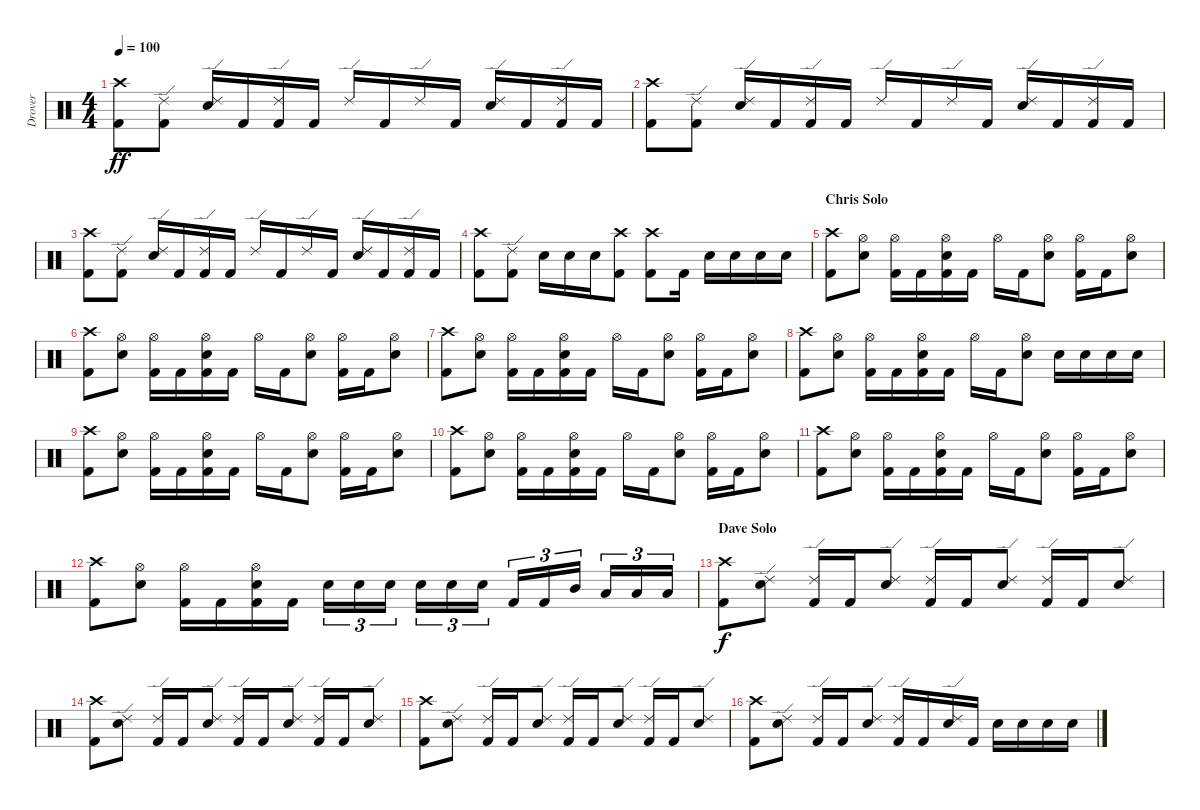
\track ("Drover" "Drover") {instrument percussion}
\staff {score}
\articulation defaults
\ts (4 4)
\tempo 100
\clef neutral
\ks c
("Crash high (hit)" "Kick (hit) 2").8{dy ff} ("Ride (edge) 2" "Kick (hit) 2").8 ("Ride (edge) 2" "Electric Snare (hit)").16 "Kick (hit) 2".16 ("Ride (edge) 2" "Kick (hit) 2").16 "Kick (hit) 2".16 "Ride (edge) 2".16 "Kick (hit) 2".16 "Ride (edge) 2".16 "Kick (hit) 2".16 ("Ride (edge) 2" "Electric Snare (hit)").16 "Kick (hit) 2".16 ("Ride (edge) 2" "Kick (hit) 2").16 "Kick (hit) 2".16 |
("Crash high (hit)" "Kick (hit) 2").8 ("Ride (edge) 2" "Kick (hit) 2").8 ("Ride (edge) 2" "Electric Snare (hit)").16 "Kick (hit) 2".16 ("Ride (edge) 2" "Kick (hit) 2").16 "Kick (hit) 2".16 "Ride (edge) 2".16 "Kick (hit) 2".16 "Ride (edge) 2".16 "Kick (hit) 2".16 ("Ride (edge) 2" "Electric Snare (hit)").16 "Kick (hit) 2".16 ("Ride (edge) 2" "Kick (hit) 2").16 "Kick (hit) 2".16 |
("Crash high (hit)" "Kick (hit) 2").8 ("Ride (edge) 2" "Kick (hit) 2").8 ("Ride (edge) 2" "Electric Snare (hit)").16 "Kick (hit) 2".16 ("Ride (edge) 2" "Kick (hit) 2").16 "Kick (hit) 2".16 "Ride (edge) 2".16 "Kick (hit) 2".16 "Ride (edge) 2".16 "Kick (hit) 2".16 ("Ride (edge) 2" "Electric Snare (hit)").16 "Kick (hit) 2".16 ("Ride (edge) 2" "Kick (hit) 2").16 "Kick (hit) 2".16 |
("Crash high (hit)" "Kick (hit) 2").8 ("Ride (edge) 2" "Kick (hit) 2").8 "Electric Snare (hit)".16 "Electric Snare (hit)".16 "Electric Snare (hit)".16 ("Crash high (hit)" "Kick (hit) 2").8 ("Crash high (hit)" "Kick (hit) 2").8 "Kick (hit) 2".16 "Electric Snare (hit)".16 "Electric Snare (hit)".16 "Electric Snare (hit)".16 "Electric Snare (hit)".16 |
\section ("" "Chris Solo")
("Crash high (hit)" "Kick (hit) 2").8 ("Hi-Hat (open)" "Electric Snare (hit)").8 ("Hi-Hat (open)" "Kick (hit) 2").16 "Kick (hit) 2".16 ("Hi-Hat (open)" "Electric Snare (hit)" "Kick (hit) 2").16 "Kick (hit) 2".16 "Hi-Hat (open)".16 "Kick (hit) 2".16 ("Hi-Hat (open)" "Electric Snare (hit)").8 ("Hi-Hat (open)" "Kick (hit) 2").16 "Kick (hit) 2".16 ("Hi-Hat (open)" "Electric Snare (hit)").8 |
("Crash high (hit)" "Kick (hit) 2").8 ("Hi-Hat (open)" "Electric Snare (hit)").8 ("Hi-Hat (open)" "Kick (hit) 2").16 "Kick (hit) 2".16 ("Hi-Hat (open)" "Electric Snare (hit)" "Kick (hit) 2").16 "Kick (hit) 2".16 "Hi-Hat (open)".16 "Kick (hit) 2".16 ("Hi-Hat (open)" "Electric Snare (hit)").8 ("Hi-Hat (open)" "Kick (hit) 2").16 "Kick (hit) 2".16 ("Hi-Hat (open)" "Electric Snare (hit)").8 |
("Crash high (hit)" "Kick (hit) 2").8 ("Hi-Hat (open)" "Electric Snare (hit)").8 ("Hi-Hat (open)" "Kick (hit) 2").16 "Kick (hit) 2".16 ("Hi-Hat (open)" "Electric Snare (hit)" "Kick (hit) 2").16 "Kick (hit) 2".16 "Hi-Hat (open)".16 "Kick (hit) 2".16 ("Hi-Hat (open)" "Electric Snare (hit)").8 ("Hi-Hat (open)" "Kick (hit) 2").16 "Kick (hit) 2".16 ("Hi-Hat (open)" "Electric Snare (hit)").8 |
("Crash high (hit)" "Kick (hit) 2").8 ("Hi-Hat (open)" "Electric Snare (hit)").8 ("Hi-Hat (open)" "Kick (hit) 2").16 "Kick (hit) 2".16 ("Hi-Hat (open)" "Electric Snare (hit)" "Kick (hit) 2").16 "Kick (hit) 2".16 "Hi-Hat (open)".16 "Kick (hit) 2".16 ("Hi-Hat (open)" "Electric Snare (hit)").8 "Electric Snare (hit)".16 "Electric Snare (hit)".16 "Electric Snare (hit)".16 "Electric Snare (hit)".16 |
("Crash high (hit)" "Kick (hit) 2").8 ("Hi-Hat (open)" "Electric Snare (hit)").8 ("Hi-Hat (open)" "Kick (hit) 2").16 "Kick (hit) 2".16 ("Hi-Hat (open)" "Electric Snare (hit)" "Kick (hit) 2").16 "Kick (hit) 2".16 "Hi-Hat (open)".16 "Kick (hit) 2".16 ("Hi-Hat (open)" "Electric Snare (hit)").8 ("Hi-Hat (open)" "Kick (hit) 2").16 "Kick (hit) 2".16 ("Hi-Hat (open)" "Electric Snare (hit)").8 |
("Crash high (hit)" "Kick (hit) 2").8 ("Hi-Hat (open)" "Electric Snare (hit)").8 ("Hi-Hat (open)" "Kick (hit) 2").16 "Kick (hit) 2".16 ("Hi-Hat (open)" "Electric Snare (hit)" "Kick (hit) 2").16 "Kick (hit) 2".16 "Hi-Hat (open)".16 "Kick (hit) 2".16 ("Hi-Hat (open)" "Electric Snare (hit)").8 ("Hi-Hat (open)" "Kick (hit) 2").16 "Kick (hit) 2".16 ("Hi-Hat (open)" "Electric Snare (hit)").8 |
("Crash high (hit)" "Kick (hit) 2").8 ("Hi-Hat (open)" "Electric Snare (hit)").8 ("Hi-Hat (open)" "Kick (hit) 2").16 "Kick (hit) 2".16 ("Hi-Hat (open)" "Electric Snare (hit)" "Kick (hit) 2").16 "Kick (hit) 2".16 "Hi-Hat (open)".16 "Kick (hit) 2".16 ("Hi-Hat (open)" "Electric Snare (hit)").8 ("Hi-Hat (open)" "Kick (hit) 2").16 "Kick (hit) 2".16 ("Hi-Hat (open)" "Electric Snare (hit)").8 |
("Crash high (hit)" "Kick (hit) 2").8 ("Hi-Hat (open)" "Electric Snare (hit)").8 ("Hi-Hat (open)" "Kick (hit) 2").16 "Kick (hit) 2".16 ("Hi-Hat (open)" "Electric Snare (hit)" "Kick (hit) 2").16 "Kick (hit) 2".16 "Electric Snare (hit)".16{tu (3 2)} "Electric Snare (hit)".16{tu (3 2)} "Electric Snare (hit)".16{tu (3 2)} "Electric Snare (hit)".16{tu (3 2)} "Electric Snare (hit)".16{tu (3 2)} "Electric Snare (hit)".16{tu (3 2)} "Kick (hit) 2".16{tu (3 2)} "Kick (hit) 2".16{tu (3 2)} "Mid Tom (hit)".16{tu (3 2)} "Low Tom (hit)".16{tu (3 2)} "Low Tom (hit)".16{tu (3 2)} "Low Tom (hit)".16{tu (3 2)} |
\section ("" "Dave Solo")
("Crash high (hit)" "Kick (hit) 2").8{dy f} ("Ride (edge) 2" "Electric Snare (hit)").8 ("Ride (edge) 2" "Kick (hit) 2").16 "Kick (hit) 2".16 ("Ride (edge) 2" "Electric Snare (hit)").8 ("Ride (edge) 2" "Kick (hit) 2").16 "Kick (hit) 2".16 ("Ride (edge) 2" "Electric Snare (hit)").8 ("Ride (edge) 2" "Kick (hit) 2").16 "Kick (hit) 2".16 ("Ride (edge) 2" "Electric Snare (hit)").8 |
("Crash high (hit)" "Kick (hit) 2").8 ("Ride (edge) 2" "Electric Snare (hit)").8 ("Ride (edge) 2" "Kick (hit) 2").16 "Kick (hit) 2".16 ("Ride (edge) 2" "Electric Snare (hit)").8 ("Ride (edge) 2" "Kick (hit) 2").16 "Kick (hit) 2".16 ("Ride (edge) 2" "Electric Snare (hit)").8 ("Ride (edge) 2" "Kick (hit) 2").16 "Kick (hit) 2".16 ("Ride (edge) 2" "Electric Snare (hit)").8 |
("Crash high (hit)" "Kick (hit) 2").8 ("Ride (edge) 2" "Electric Snare (hit)").8 ("Ride (edge) 2" "Kick (hit) 2").16 "Kick (hit) 2".16 ("Ride (edge) 2" "Electric Snare (hit)").8 ("Ride (edge) 2" "Kick (hit) 2").16 "Kick (hit) 2".16 ("Ride (edge) 2" "Electric Snare (hit)").8 ("Ride (edge) 2" "Kick (hit) 2").16 "Kick (hit) 2".16 ("Ride (edge) 2" "Electric Snare (hit)").8 |
("Crash high (hit)" "Kick (hit) 2").8 ("Ride (edge) 2" "Electric Snare (hit)").8 ("Ride (edge) 2" "Kick (hit) 2").16 "Kick (hit) 2".16 ("Ride (edge) 2" "Electric Snare (hit)").8 ("Ride (edge) 2" "Kick (hit) 2").16 "Kick (hit) 2".16 ("Ride (edge) 2" "Electric Snare (hit)").16 "Kick (hit) 2".16 "Electric Snare (hit)".16 "Electric Snare (hit)".16 "Electric Snare (hit)".16 "Electric Snare (hit)".16
